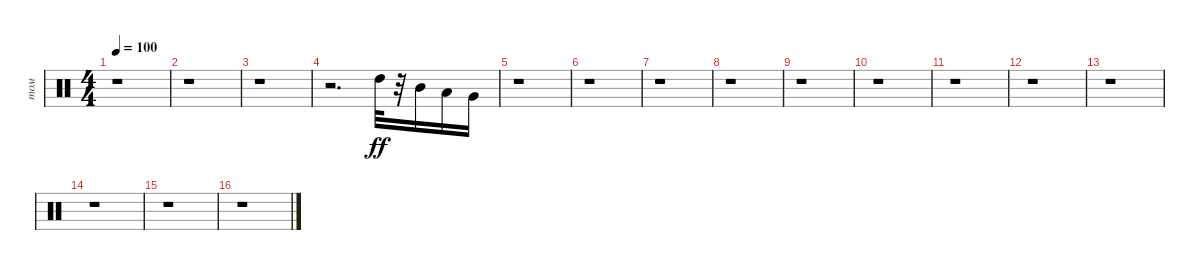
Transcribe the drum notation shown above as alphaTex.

\track ("том" "том") {instrument percussion}
\staff {score}
\articulation defaults
\ts (4 4)
\tempo 100
\clef neutral
\ks c
r.1{dy ff} |
r.1 |
r.1 |
r.2{d} "High Tom (hit)".32 r.32 "Mid Tom (hit)".16 "Low Tom (hit)".16 "Very Low Tom (hit)".16 |
r.1 |
r.1 |
r.1 |
r.1 |
r.1 |
r.1 |
r.1 |
r.1 |
r.1 |
r.1 |
r.1 |
r.1
